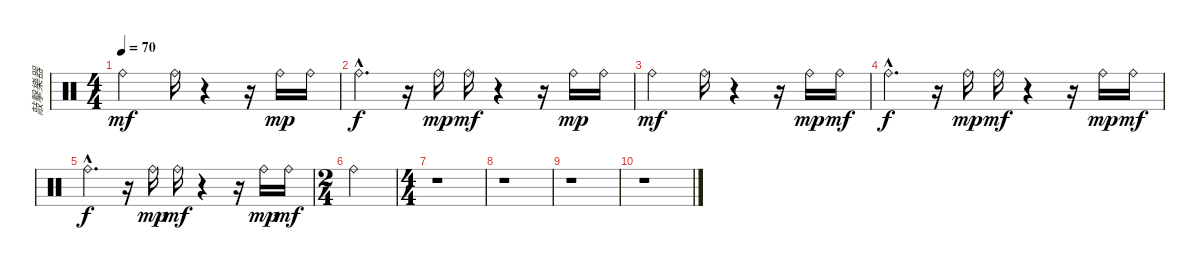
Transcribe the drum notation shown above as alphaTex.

\track ("敲擊樂器" "敲擊樂器") {instrument percussion}
\staff {score}
\articulation defaults
\ts (4 4)
\tempo 70
\clef neutral
\ks c "Ride (bell)".2{dy mf} "Ride (bell)".16
r.4 r.16 "Ride (bell)".16{dy mp} "Ride (bell)".16 |
"Ride (bell)"{hac}.4{d dy f} r.16 "Ride (bell)".16{dy mp} "Ride (bell)".16{dy mf} r.4 r.16 "Ride (bell)".16{dy mp} "Ride (bell)".16 |
"Ride (bell)".2{dy mf} "Ride (bell)".16 r.4 r.16 "Ride (bell)".16{dy mp} "Ride (bell)".16{dy mf} |
"Ride (bell)"{hac}.4{d dy f} r.16 "Ride (bell)".16{dy mp} "Ride (bell)".16{dy mf} r.4 r.16 "Ride (bell)".16{dy mp} "Ride (bell)".16{dy mf} |
"Ride (bell)"{hac}.4{d dy f} r.16 "Ride (bell)".16{dy mp} "Ride (bell)".16{dy mf} r.4 r.16 "Ride (bell)".16{dy mp} "Ride (bell)".16{dy mf} |
\ts (2 4)
"Ride (bell)".2 |
\ts (4 4)
r.1 |
r.1 |
r.1 |
r.1
